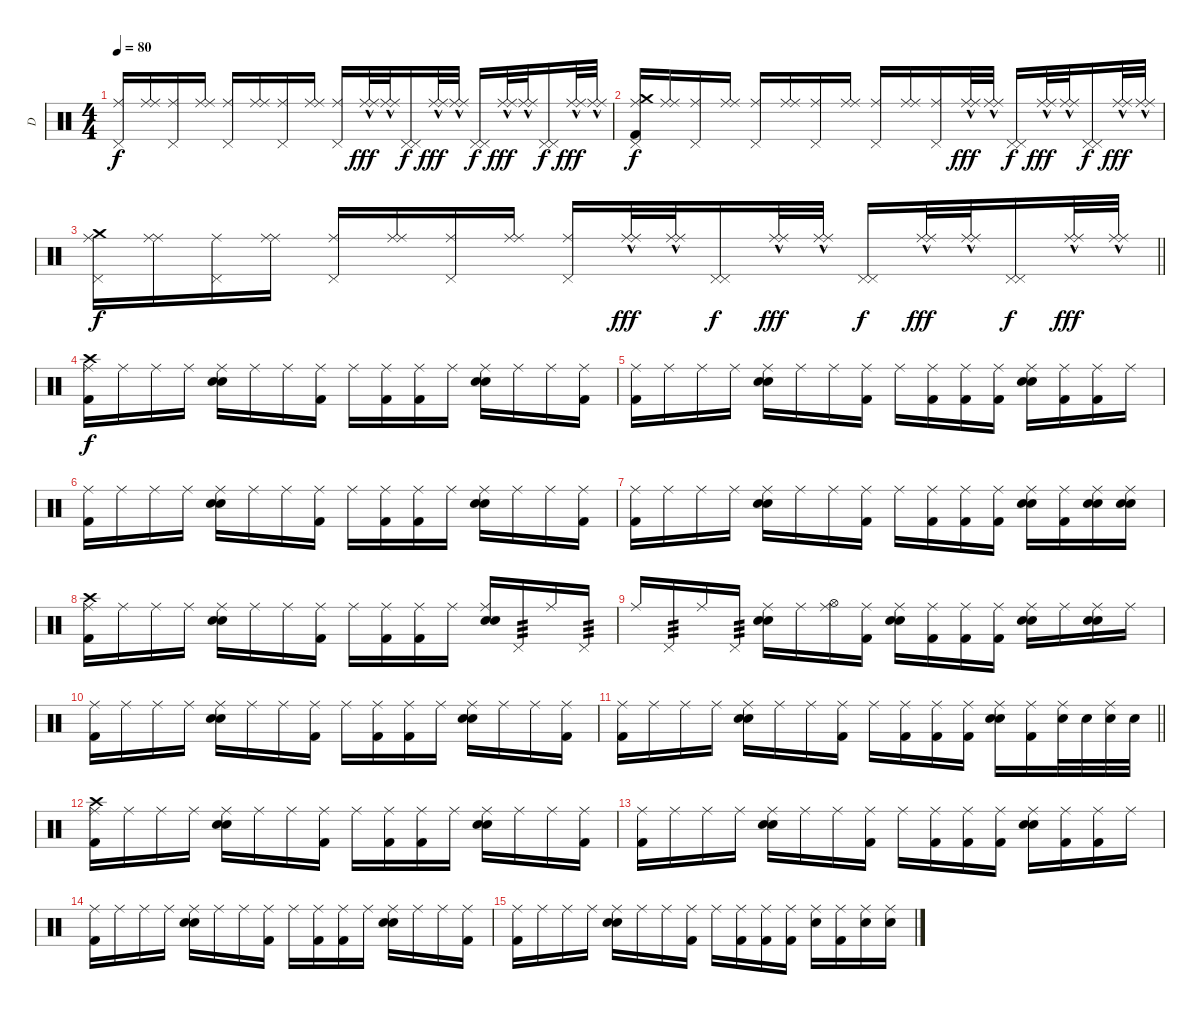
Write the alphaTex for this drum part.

\track ("D" "D") {instrument percussion}
\staff {score}
\articulation defaults
\ts (4 4)
\tempo 80
\clef neutral
\ks c
("Pedal Hi-Hat (hit)" "Ride (middle)").16{dy f} ("Ride (middle)" "Ride (middle)").16 ("Pedal Hi-Hat (hit)" "Ride (middle)").16 ("Ride (middle)" "Ride (middle)").16 ("Pedal Hi-Hat (hit)" "Ride (middle)").16 ("Ride (middle)" "Ride (middle)").16 ("Pedal Hi-Hat (hit)" "Ride (middle)").16 ("Ride (middle)" "Ride (middle)").16 ("Pedal Hi-Hat (hit)" "Ride (middle)").16 ("Ride (middle)"{hac} "Ride (middle)"{hac}).32{dy fff} ("Ride (middle)"{hac} "Ride (middle)"{hac}).32 ("Pedal Hi-Hat (hit)" "Pedal Hi-Hat (hit)").16{dy f} ("Ride (middle)"{hac} "Ride (middle)"{hac}).32{dy fff} ("Ride (middle)"{hac} "Ride (middle)"{hac}).32 ("Pedal Hi-Hat (hit)" "Pedal Hi-Hat (hit)").16{dy f} ("Ride (middle)"{hac} "Ride (middle)"{hac}).32{dy fff} ("Ride (middle)"{hac} "Ride (middle)"{hac}).32 ("Pedal Hi-Hat (hit)" "Pedal Hi-Hat (hit)").16{dy f} ("Ride (middle)"{hac} "Ride (middle)"{hac}).32{dy fff} ("Ride (middle)"{hac} "Ride (middle)"{hac}).32 |
("Crash medium (hit)" "Kick (hit) 2" "Pedal Hi-Hat (hit)" "Ride (middle)").16{dy f} ("Ride (middle)" "Ride (middle)").16 ("Pedal Hi-Hat (hit)" "Ride (middle)").16 ("Ride (middle)" "Ride (middle)").16 ("Pedal Hi-Hat (hit)" "Ride (middle)").16 ("Ride (middle)" "Ride (middle)").16 ("Pedal Hi-Hat (hit)" "Ride (middle)").16 ("Ride (middle)" "Ride (middle)").16 ("Pedal Hi-Hat (hit)" "Ride (middle)").16 ("Ride (middle)" "Ride (middle)").16 ("Pedal Hi-Hat (hit)" "Ride (middle)").16 ("Ride (middle)"{hac} "Ride (middle)"{hac}).32{dy fff} ("Ride (middle)"{hac} "Ride (middle)"{hac}).32 ("Pedal Hi-Hat (hit)" "Pedal Hi-Hat (hit)").16{dy f} ("Ride (middle)"{hac} "Ride (middle)"{hac}).32{dy fff} ("Ride (middle)"{hac} "Ride (middle)"{hac}).32 ("Pedal Hi-Hat (hit)" "Pedal Hi-Hat (hit)").16{dy f} ("Ride (middle)"{hac} "Ride (middle)"{hac}).32{dy fff} ("Ride (middle)"{hac} "Ride (middle)"{hac}).32 |
\barLineRight lightlight
("Crash medium (hit)" "Pedal Hi-Hat (hit)" "Ride (middle)").16{dy f} ("Ride (middle)" "Ride (middle)").16 ("Pedal Hi-Hat (hit)" "Ride (middle)").16 ("Ride (middle)" "Ride (middle)").16 ("Pedal Hi-Hat (hit)" "Ride (middle)").16 ("Ride (middle)" "Ride (middle)").16 ("Pedal Hi-Hat (hit)" "Ride (middle)").16 ("Ride (middle)" "Ride (middle)").16 ("Pedal Hi-Hat (hit)" "Ride (middle)").16 ("Ride (middle)"{hac} "Ride (middle)"{hac}).32{dy fff} ("Ride (middle)"{hac} "Ride (middle)"{hac}).32 ("Pedal Hi-Hat (hit)" "Pedal Hi-Hat (hit)").16{dy f} ("Ride (middle)"{hac} "Ride (middle)"{hac}).32{dy fff} ("Ride (middle)"{hac} "Ride (middle)"{hac}).32 ("Pedal Hi-Hat (hit)" "Pedal Hi-Hat (hit)").16{dy f} ("Ride (middle)"{hac} "Ride (middle)"{hac}).32{dy fff} ("Ride (middle)"{hac} "Ride (middle)"{hac}).32 ("Pedal Hi-Hat (hit)" "Pedal Hi-Hat (hit)").16{dy f} ("Ride (middle)"{hac} "Ride (middle)"{hac}).32{dy fff} ("Ride (middle)"{hac} "Ride (middle)"{hac}).32 |
("Crash high (hit)" "Kick (hit) 2" "Ride (middle)").16{dy f} "Ride (middle)".16 "Ride (middle)".16 "Ride (middle)".16 ("Electric Snare (hit)" "Electric Snare (hit)" "Ride (middle)").16 "Ride (middle)".16 "Ride (middle)".16 ("Kick (hit) 2" "Ride (middle)").16 "Ride (middle)".16 ("Kick (hit) 2" "Ride (middle)").16 ("Kick (hit) 2" "Ride (middle)").16 "Ride (middle)".16 ("Electric Snare (hit)" "Electric Snare (hit)" "Ride (middle)").16 "Ride (middle)".16 "Ride (middle)".16 ("Kick (hit) 2" "Ride (middle)").16 |
("Kick (hit) 2" "Ride (middle)").16 "Ride (middle)".16 "Ride (middle)".16 "Ride (middle)".16 ("Electric Snare (hit)" "Electric Snare (hit)" "Ride (middle)").16 "Ride (middle)".16 "Ride (middle)".16 ("Kick (hit) 2" "Ride (middle)").16 "Ride (middle)".16 ("Kick (hit) 2" "Ride (middle)").16 ("Kick (hit) 2" "Ride (middle)").16 ("Kick (hit) 2" "Ride (middle)").16 ("Electric Snare (hit)" "Electric Snare (hit)" "Ride (middle)").16 ("Kick (hit) 2" "Ride (middle)").16 ("Kick (hit) 2" "Ride (middle)").16 "Ride (middle)".16 |
("Kick (hit) 2" "Ride (middle)").16 "Ride (middle)".16 "Ride (middle)".16 "Ride (middle)".16 ("Electric Snare (hit)" "Electric Snare (hit)" "Ride (middle)").16 "Ride (middle)".16 "Ride (middle)".16 ("Kick (hit) 2" "Ride (middle)").16 "Ride (middle)".16 ("Kick (hit) 2" "Ride (middle)").16 ("Kick (hit) 2" "Ride (middle)").16 "Ride (middle)".16 ("Electric Snare (hit)" "Electric Snare (hit)" "Ride (middle)").16 "Ride (middle)".16 "Ride (middle)".16 ("Kick (hit) 2" "Ride (middle)").16 |
("Kick (hit) 2" "Ride (middle)").16 "Ride (middle)".16 "Ride (middle)".16 "Ride (middle)".16 ("Electric Snare (hit)" "Electric Snare (hit)" "Ride (middle)").16 "Ride (middle)".16 "Ride (middle)".16 ("Kick (hit) 2" "Ride (middle)").16 "Ride (middle)".16 ("Kick (hit) 2" "Ride (middle)").16 ("Kick (hit) 2" "Ride (middle)").16 ("Kick (hit) 2" "Ride (middle)").16 ("Electric Snare (hit)" "Electric Snare (hit)" "Ride (middle)").16 ("Kick (hit) 2" "Ride (middle)").16 ("Electric Snare (hit)" "Electric Snare (hit)" "Ride (middle)").16 ("Electric Snare (hit)" "Electric Snare (hit)" "Ride (middle)").16 |
("Crash high (hit)" "Kick (hit) 2" "Ride (middle)").16 "Ride (middle)".16 "Ride (middle)".16 "Ride (middle)".16 ("Electric Snare (hit)" "Electric Snare (hit)" "Ride (middle)").16 "Ride (middle)".16 "Ride (middle)".16 ("Kick (hit) 2" "Ride (middle)").16 "Ride (middle)".16 ("Kick (hit) 2" "Ride (middle)").16 ("Kick (hit) 2" "Ride (middle)").16 "Ride (middle)".16 ("Electric Snare (hit)" "Electric Snare (hit)" "Ride (middle)").16 "Pedal Hi-Hat (hit)".16{tp 3} "Ride (middle)".16 "Pedal Hi-Hat (hit)".16{tp 3} |
"Ride (middle)".16 "Pedal Hi-Hat (hit)".16{tp 3} "Ride (middle)".16 "Pedal Hi-Hat (hit)".16{tp 3} ("Electric Snare (hit)" "Electric Snare (hit)" "Ride (middle)").16 "Ride (middle)".16 ("Hi-Hat (open)" "Ride (middle)").16 ("Kick (hit) 2" "Ride (middle)").16 ("Electric Snare (hit)" "Electric Snare (hit)" "Ride (middle)").16 ("Kick (hit) 2" "Ride (middle)").16 ("Kick (hit) 2" "Ride (middle)").16 ("Kick (hit) 2" "Ride (middle)").16 ("Electric Snare (hit)" "Electric Snare (hit)" "Ride (middle)").16 "Ride (middle)".16 ("Electric Snare (hit)" "Electric Snare (hit)" "Ride (middle)").16 "Ride (middle)".16 |
("Kick (hit) 2" "Ride (middle)").16 "Ride (middle)".16 "Ride (middle)".16 "Ride (middle)".16 ("Electric Snare (hit)" "Electric Snare (hit)" "Ride (middle)").16 "Ride (middle)".16 "Ride (middle)".16 ("Kick (hit) 2" "Ride (middle)").16 "Ride (middle)".16 ("Kick (hit) 2" "Ride (middle)").16 ("Kick (hit) 2" "Ride (middle)").16 "Ride (middle)".16 ("Electric Snare (hit)" "Electric Snare (hit)" "Ride (middle)").16 "Ride (middle)".16 "Ride (middle)".16 ("Kick (hit) 2" "Ride (middle)").16 |
\barLineRight lightlight
("Kick (hit) 2" "Ride (middle)").16 "Ride (middle)".16 "Ride (middle)".16 "Ride (middle)".16 ("Electric Snare (hit)" "Electric Snare (hit)" "Ride (middle)").16 "Ride (middle)".16 "Ride (middle)".16 ("Kick (hit) 2" "Ride (middle)").16 "Ride (middle)".16 ("Kick (hit) 2" "Ride (middle)").16 ("Kick (hit) 2" "Ride (middle)").16 ("Kick (hit) 2" "Ride (middle)").16 ("Electric Snare (hit)" "Electric Snare (hit)" "Ride (middle)").16 ("Kick (hit) 2" "Ride (middle)").16 ("Electric Snare (hit)" "Ride (middle)").32 "Electric Snare (hit)".32 ("Electric Snare (hit)" "Ride (middle)").32 "Electric Snare (hit)".32 |
("Crash high (hit)" "Kick (hit) 2" "Ride (middle)").16 "Ride (middle)".16 "Ride (middle)".16 "Ride (middle)".16 ("Electric Snare (hit)" "Electric Snare (hit)" "Ride (middle)").16 "Ride (middle)".16 "Ride (middle)".16 ("Kick (hit) 2" "Ride (middle)").16 "Ride (middle)".16 ("Kick (hit) 2" "Ride (middle)").16 ("Kick (hit) 2" "Ride (middle)").16 "Ride (middle)".16 ("Electric Snare (hit)" "Electric Snare (hit)" "Ride (middle)").16 "Ride (middle)".16 "Ride (middle)".16 ("Kick (hit) 2" "Ride (middle)").16 |
("Kick (hit) 2" "Ride (middle)").16 "Ride (middle)".16 "Ride (middle)".16 "Ride (middle)".16 ("Electric Snare (hit)" "Electric Snare (hit)" "Ride (middle)").16 "Ride (middle)".16 "Ride (middle)".16 ("Kick (hit) 2" "Ride (middle)").16 "Ride (middle)".16 ("Kick (hit) 2" "Ride (middle)").16 ("Kick (hit) 2" "Ride (middle)").16 ("Kick (hit) 2" "Ride (middle)").16 ("Electric Snare (hit)" "Electric Snare (hit)" "Ride (middle)").16 ("Kick (hit) 2" "Ride (middle)").16 ("Kick (hit) 2" "Ride (middle)").16 "Ride (middle)".16 |
("Kick (hit) 2" "Ride (middle)").16 "Ride (middle)".16 "Ride (middle)".16 "Ride (middle)".16 ("Electric Snare (hit)" "Electric Snare (hit)" "Ride (middle)").16 "Ride (middle)".16 "Ride (middle)".16 ("Kick (hit) 2" "Ride (middle)").16 "Ride (middle)".16 ("Kick (hit) 2" "Ride (middle)").16 ("Kick (hit) 2" "Ride (middle)").16 "Ride (middle)".16 ("Electric Snare (hit)" "Electric Snare (hit)" "Ride (middle)").16 "Ride (middle)".16 "Ride (middle)".16 ("Kick (hit) 2" "Ride (middle)").16 |
("Kick (hit) 2" "Ride (middle)").16 "Ride (middle)".16 "Ride (middle)".16 "Ride (middle)".16 ("Electric Snare (hit)" "Electric Snare (hit)" "Ride (middle)").16 "Ride (middle)".16 "Ride (middle)".16 ("Kick (hit) 2" "Ride (middle)").16 "Ride (middle)".16 ("Kick (hit) 2" "Ride (middle)").16 ("Kick (hit) 2" "Ride (middle)").16 ("Kick (hit) 2" "Ride (middle)").16 ("Electric Snare (hit)" "Ride (middle)").16 ("Kick (hit) 2" "Ride (middle)").16 ("Electric Snare (hit)" "Ride (middle)").16 ("Electric Snare (hit)" "Ride (middle)").16
